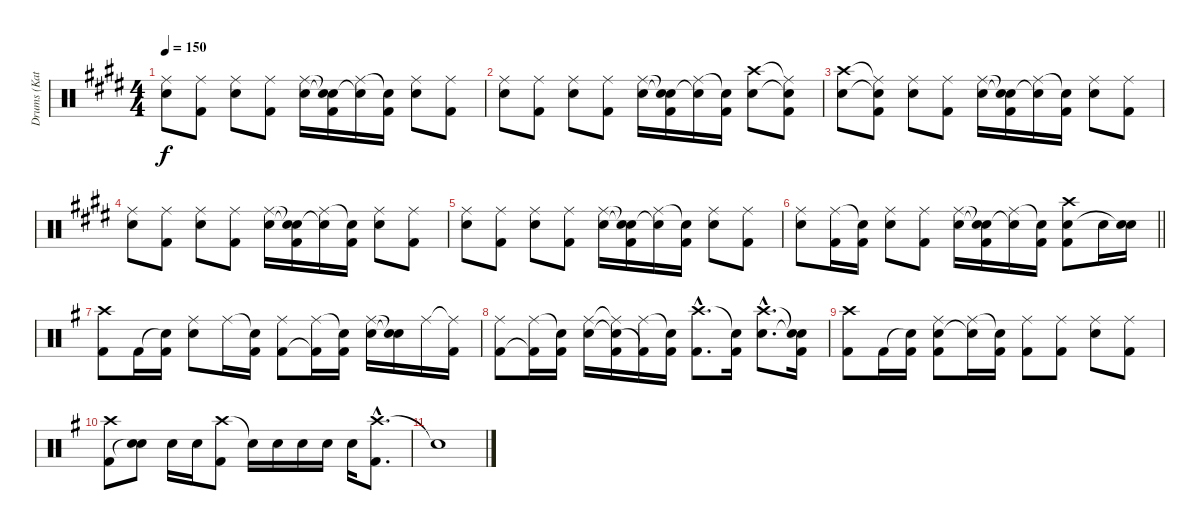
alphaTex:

\track ("Drums (Katsuji)" "Drums (Kat") {instrument percussion}
\staff {score}
\articulation defaults
\ts (4 4)
\tempo 150
\clef neutral
\ks e
("Ride (middle)" "Snare (hit) 2").8{dy f} ("Ride (middle)" "Kick (hit) 2").8 ("Ride (middle)" "Snare (hit) 2").8 ("Ride (middle)" "Kick (hit) 2").8 ("Ride (middle)" "Snare (hit) 2").16 ("Snare (hit)"{t} "Snare (hit)"{t} "Kick (hit) 2").16 ("Ride (middle)" "Snare (hit)"{t}).16 ("Snare (hit)"{t} "Kick (hit) 2").16 ("Ride (middle)" "Snare (hit) 2").8 ("Ride (middle)" "Kick (hit) 2").8 |
("Ride (middle)" "Snare (hit) 2").8 ("Ride (middle)" "Kick (hit) 2").8 ("Ride (middle)" "Snare (hit) 2").8 ("Ride (middle)" "Kick (hit) 2").8 ("Ride (middle)" "Snare (hit) 2").16 ("Snare (hit)"{t} "Snare (hit)"{t} "Kick (hit) 2").16 ("Ride (middle)" "Snare (hit)"{t}).16 ("Snare (hit)"{t} "Kick (hit) 2").16 ("Crash high (hit)" "Snare (hit) 2").8 ("Ride (middle)"{t} "Snare (hit)"{t} "Kick (hit) 2").8 |
("Crash high (hit)" "Snare (hit) 2").8 ("Ride (middle)"{t} "Snare (hit)"{t} "Kick (hit) 2").8 ("Ride (middle)" "Snare (hit) 2").8 ("Ride (middle)" "Kick (hit) 2").8 ("Ride (middle)" "Snare (hit) 2").16 ("Snare (hit)"{t} "Snare (hit)"{t} "Kick (hit) 2").16 ("Ride (middle)" "Snare (hit)"{t}).16 ("Snare (hit)"{t} "Kick (hit) 2").16 ("Ride (middle)" "Snare (hit) 2").8 ("Ride (middle)" "Kick (hit) 2").8 |
("Ride (middle)" "Snare (hit) 2").8 ("Ride (middle)" "Kick (hit) 2").8 ("Ride (middle)" "Snare (hit) 2").8 ("Ride (middle)" "Kick (hit) 2").8 ("Ride (middle)" "Snare (hit) 2").16 ("Snare (hit)"{t} "Snare (hit)"{t} "Kick (hit) 2").16 ("Ride (middle)" "Snare (hit)"{t}).16 ("Snare (hit)"{t} "Kick (hit) 2").16 ("Ride (middle)" "Snare (hit) 2").8 ("Ride (middle)" "Kick (hit) 2").8 |
("Ride (middle)" "Snare (hit) 2").8 ("Ride (middle)" "Kick (hit) 2").8 ("Ride (middle)" "Snare (hit) 2").8 ("Ride (middle)" "Kick (hit) 2").8 ("Ride (middle)" "Snare (hit) 2").16 ("Snare (hit)"{t} "Snare (hit)"{t} "Kick (hit) 2").16 ("Ride (middle)" "Snare (hit)"{t}).16 ("Snare (hit)"{t} "Kick (hit) 2").16 ("Ride (middle)" "Snare (hit) 2").8 ("Ride (middle)" "Kick (hit) 2").8 |
\barLineRight lightlight
("Ride (middle)" "Snare (hit) 2").8 ("Ride (middle)" "Kick (hit) 2").16 ("Snare (hit)"{t} "Kick (hit) 2").16 ("Ride (middle)" "Snare (hit) 2").8 ("Ride (middle)" "Kick (hit) 2").8 ("Ride (middle)" "Snare (hit) 2").16 ("Snare (hit)"{t} "Snare (hit)"{t} "Kick (hit) 2").16 ("Ride (middle)" "Snare (hit)"{t}).16 ("Snare (hit)"{t} "Kick (hit) 2").16 ("Crash high (hit)" "Snare (hit) 2" "Kick (hit) 2").8 "Snare (hit) 2".16 ("Snare (hit) 2" "Snare (hit)"{t}).16 |
\ks g
("Crash high (hit)" "Kick (hit) 2").8 "Kick (hit) 2".16 ("Snare (hit)"{t} "Kick (hit) 2").16 ("Ride (middle)" "Snare (hit) 2").8 "Ride (middle)".16 ("Snare (hit)"{t} "Kick (hit) 2").16 ("Ride (middle)" "Kick (hit) 2").8 ("Ride (middle)" "Kick (hit) 2"{t}).16 ("Snare (hit)"{t} "Kick (hit) 2").16 ("Ride (middle)" "Snare (hit) 2").16 ("Snare (hit)"{t} "Snare (hit)"{t}).16 "Ride (middle)".16 ("Ride (middle)"{t} "Kick (hit) 2").16 |
("Ride (middle)" "Kick (hit) 2").8 ("Ride (middle)" "Kick (hit) 2"{t}).16 ("Snare (hit)"{t} "Kick (hit) 2").16 ("Ride (middle)" "Snare (hit) 2").16 ("Ride (middle)"{t} "Snare (hit)"{t} "Kick (hit) 2").16 ("Ride (middle)" "Kick (hit) 2"{t}).16 ("Snare (hit)"{t} "Kick (hit) 2").16 ("Crash high (hit)"{hac} "Kick (hit) 2"{hac}).8{d} ("Snare (hit)"{t} "Kick (hit) 2").16 ("Crash high (hit)"{hac} "Snare (hit) 2"{hac}).8{d} ("Snare (hit)"{t} "Snare (hit)"{t} "Kick (hit) 2").16 |
("Crash high (hit)" "Kick (hit) 2").8 "Kick (hit) 2".16 ("Snare (hit)"{t} "Kick (hit) 2").16 ("Ride (middle)" "Snare (hit) 2" "Kick (hit) 2").8 ("Ride (middle)" "Snare (hit)"{t}).16 ("Snare (hit)"{t} "Kick (hit) 2").16 ("Ride (middle)" "Kick (hit) 2").8 ("Ride (middle)" "Kick (hit) 2").8 ("Ride (middle)" "Snare (hit) 2").8 ("Ride (middle)" "Kick (hit) 2").8 |
("Crash high (hit)" "Kick (hit) 2").8 ("Snare (hit) 2" "Snare (hit)"{t}).8 "Snare (hit) 2".16 "Snare (hit) 2".16 ("Crash high (hit)" "Kick (hit) 2").8 "Snare (hit)"{t}.16 "Snare (hit) 2".16 "Snare (hit) 2".16 "Snare (hit) 2".16 "Snare (hit) 2".16 ("Crash high (hit)"{hac} "Kick (hit) 2"{hac}).8{d} |
"Snare (hit)"{t}.1
